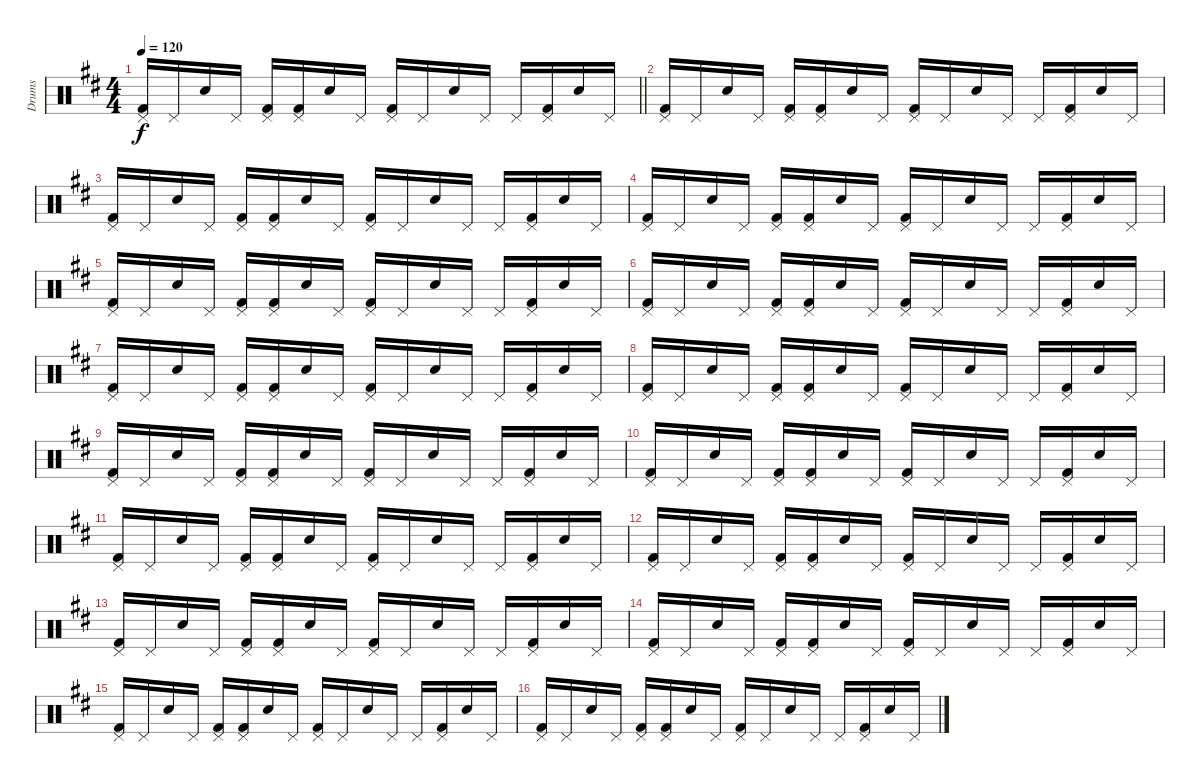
\track ("Drums" "Drums") {instrument percussion}
\staff {score}
\articulation defaults
\ts (4 4)
\tempo 120
\clef neutral
\barLineRight lightlight
\ks d
("Pedal Hi-Hat (hit)" "Kick (hit) 2").16{dy f} "Pedal Hi-Hat (hit)".16 "Electric Snare (hit)".16 "Pedal Hi-Hat (hit)".16 ("Pedal Hi-Hat (hit)" "Kick (hit) 2").16 ("Pedal Hi-Hat (hit)" "Kick (hit) 2").16 "Electric Snare (hit)".16 "Pedal Hi-Hat (hit)".16 ("Pedal Hi-Hat (hit)" "Kick (hit) 2").16 "Pedal Hi-Hat (hit)".16 "Electric Snare (hit)".16 "Pedal Hi-Hat (hit)".16 "Pedal Hi-Hat (hit)".16 ("Pedal Hi-Hat (hit)" "Kick (hit) 2").16 "Electric Snare (hit)".16 "Pedal Hi-Hat (hit)".16 |
("Pedal Hi-Hat (hit)" "Kick (hit) 2").16 "Pedal Hi-Hat (hit)".16 "Electric Snare (hit)".16 "Pedal Hi-Hat (hit)".16 ("Pedal Hi-Hat (hit)" "Kick (hit) 2").16 ("Pedal Hi-Hat (hit)" "Kick (hit) 2").16 "Electric Snare (hit)".16 "Pedal Hi-Hat (hit)".16 ("Pedal Hi-Hat (hit)" "Kick (hit) 2").16 "Pedal Hi-Hat (hit)".16 "Electric Snare (hit)".16 "Pedal Hi-Hat (hit)".16 "Pedal Hi-Hat (hit)".16 ("Pedal Hi-Hat (hit)" "Kick (hit) 2").16 "Electric Snare (hit)".16 "Pedal Hi-Hat (hit)".16 |
("Pedal Hi-Hat (hit)" "Kick (hit) 2").16 "Pedal Hi-Hat (hit)".16 "Electric Snare (hit)".16 "Pedal Hi-Hat (hit)".16 ("Pedal Hi-Hat (hit)" "Kick (hit) 2").16 ("Pedal Hi-Hat (hit)" "Kick (hit) 2").16 "Electric Snare (hit)".16 "Pedal Hi-Hat (hit)".16 ("Pedal Hi-Hat (hit)" "Kick (hit) 2").16 "Pedal Hi-Hat (hit)".16 "Electric Snare (hit)".16 "Pedal Hi-Hat (hit)".16 "Pedal Hi-Hat (hit)".16 ("Pedal Hi-Hat (hit)" "Kick (hit) 2").16 "Electric Snare (hit)".16 "Pedal Hi-Hat (hit)".16 |
("Pedal Hi-Hat (hit)" "Kick (hit) 2").16 "Pedal Hi-Hat (hit)".16 "Electric Snare (hit)".16 "Pedal Hi-Hat (hit)".16 ("Pedal Hi-Hat (hit)" "Kick (hit) 2").16 ("Pedal Hi-Hat (hit)" "Kick (hit) 2").16 "Electric Snare (hit)".16 "Pedal Hi-Hat (hit)".16 ("Pedal Hi-Hat (hit)" "Kick (hit) 2").16 "Pedal Hi-Hat (hit)".16 "Electric Snare (hit)".16 "Pedal Hi-Hat (hit)".16 "Pedal Hi-Hat (hit)".16 ("Pedal Hi-Hat (hit)" "Kick (hit) 2").16 "Electric Snare (hit)".16 "Pedal Hi-Hat (hit)".16 |
("Pedal Hi-Hat (hit)" "Kick (hit) 2").16 "Pedal Hi-Hat (hit)".16 "Electric Snare (hit)".16 "Pedal Hi-Hat (hit)".16 ("Pedal Hi-Hat (hit)" "Kick (hit) 2").16 ("Pedal Hi-Hat (hit)" "Kick (hit) 2").16 "Electric Snare (hit)".16 "Pedal Hi-Hat (hit)".16 ("Pedal Hi-Hat (hit)" "Kick (hit) 2").16 "Pedal Hi-Hat (hit)".16 "Electric Snare (hit)".16 "Pedal Hi-Hat (hit)".16 "Pedal Hi-Hat (hit)".16 ("Pedal Hi-Hat (hit)" "Kick (hit) 2").16 "Electric Snare (hit)".16 "Pedal Hi-Hat (hit)".16 |
("Pedal Hi-Hat (hit)" "Kick (hit) 2").16 "Pedal Hi-Hat (hit)".16 "Electric Snare (hit)".16 "Pedal Hi-Hat (hit)".16 ("Pedal Hi-Hat (hit)" "Kick (hit) 2").16 ("Pedal Hi-Hat (hit)" "Kick (hit) 2").16 "Electric Snare (hit)".16 "Pedal Hi-Hat (hit)".16 ("Pedal Hi-Hat (hit)" "Kick (hit) 2").16 "Pedal Hi-Hat (hit)".16 "Electric Snare (hit)".16 "Pedal Hi-Hat (hit)".16 "Pedal Hi-Hat (hit)".16 ("Pedal Hi-Hat (hit)" "Kick (hit) 2").16 "Electric Snare (hit)".16 "Pedal Hi-Hat (hit)".16 |
("Pedal Hi-Hat (hit)" "Kick (hit) 2").16 "Pedal Hi-Hat (hit)".16 "Electric Snare (hit)".16 "Pedal Hi-Hat (hit)".16 ("Pedal Hi-Hat (hit)" "Kick (hit) 2").16 ("Pedal Hi-Hat (hit)" "Kick (hit) 2").16 "Electric Snare (hit)".16 "Pedal Hi-Hat (hit)".16 ("Pedal Hi-Hat (hit)" "Kick (hit) 2").16 "Pedal Hi-Hat (hit)".16 "Electric Snare (hit)".16 "Pedal Hi-Hat (hit)".16 "Pedal Hi-Hat (hit)".16 ("Pedal Hi-Hat (hit)" "Kick (hit) 2").16 "Electric Snare (hit)".16 "Pedal Hi-Hat (hit)".16 |
("Pedal Hi-Hat (hit)" "Kick (hit) 2").16 "Pedal Hi-Hat (hit)".16 "Electric Snare (hit)".16 "Pedal Hi-Hat (hit)".16 ("Pedal Hi-Hat (hit)" "Kick (hit) 2").16 ("Pedal Hi-Hat (hit)" "Kick (hit) 2").16 "Electric Snare (hit)".16 "Pedal Hi-Hat (hit)".16 ("Pedal Hi-Hat (hit)" "Kick (hit) 2").16 "Pedal Hi-Hat (hit)".16 "Electric Snare (hit)".16 "Pedal Hi-Hat (hit)".16 "Pedal Hi-Hat (hit)".16 ("Pedal Hi-Hat (hit)" "Kick (hit) 2").16 "Electric Snare (hit)".16 "Pedal Hi-Hat (hit)".16 |
("Pedal Hi-Hat (hit)" "Kick (hit) 2").16 "Pedal Hi-Hat (hit)".16 "Electric Snare (hit)".16 "Pedal Hi-Hat (hit)".16 ("Pedal Hi-Hat (hit)" "Kick (hit) 2").16 ("Pedal Hi-Hat (hit)" "Kick (hit) 2").16 "Electric Snare (hit)".16 "Pedal Hi-Hat (hit)".16 ("Pedal Hi-Hat (hit)" "Kick (hit) 2").16 "Pedal Hi-Hat (hit)".16 "Electric Snare (hit)".16 "Pedal Hi-Hat (hit)".16 "Pedal Hi-Hat (hit)".16 ("Pedal Hi-Hat (hit)" "Kick (hit) 2").16 "Electric Snare (hit)".16 "Pedal Hi-Hat (hit)".16 |
("Pedal Hi-Hat (hit)" "Kick (hit) 2").16 "Pedal Hi-Hat (hit)".16 "Electric Snare (hit)".16 "Pedal Hi-Hat (hit)".16 ("Pedal Hi-Hat (hit)" "Kick (hit) 2").16 ("Pedal Hi-Hat (hit)" "Kick (hit) 2").16 "Electric Snare (hit)".16 "Pedal Hi-Hat (hit)".16 ("Pedal Hi-Hat (hit)" "Kick (hit) 2").16 "Pedal Hi-Hat (hit)".16 "Electric Snare (hit)".16 "Pedal Hi-Hat (hit)".16 "Pedal Hi-Hat (hit)".16 ("Pedal Hi-Hat (hit)" "Kick (hit) 2").16 "Electric Snare (hit)".16 "Pedal Hi-Hat (hit)".16 |
("Pedal Hi-Hat (hit)" "Kick (hit) 2").16 "Pedal Hi-Hat (hit)".16 "Electric Snare (hit)".16 "Pedal Hi-Hat (hit)".16 ("Pedal Hi-Hat (hit)" "Kick (hit) 2").16 ("Pedal Hi-Hat (hit)" "Kick (hit) 2").16 "Electric Snare (hit)".16 "Pedal Hi-Hat (hit)".16 ("Pedal Hi-Hat (hit)" "Kick (hit) 2").16 "Pedal Hi-Hat (hit)".16 "Electric Snare (hit)".16 "Pedal Hi-Hat (hit)".16 "Pedal Hi-Hat (hit)".16 ("Pedal Hi-Hat (hit)" "Kick (hit) 2").16 "Electric Snare (hit)".16 "Pedal Hi-Hat (hit)".16 |
("Pedal Hi-Hat (hit)" "Kick (hit) 2").16 "Pedal Hi-Hat (hit)".16 "Electric Snare (hit)".16 "Pedal Hi-Hat (hit)".16 ("Pedal Hi-Hat (hit)" "Kick (hit) 2").16 ("Pedal Hi-Hat (hit)" "Kick (hit) 2").16 "Electric Snare (hit)".16 "Pedal Hi-Hat (hit)".16 ("Pedal Hi-Hat (hit)" "Kick (hit) 2").16 "Pedal Hi-Hat (hit)".16 "Electric Snare (hit)".16 "Pedal Hi-Hat (hit)".16 "Pedal Hi-Hat (hit)".16 ("Pedal Hi-Hat (hit)" "Kick (hit) 2").16 "Electric Snare (hit)".16 "Pedal Hi-Hat (hit)".16 |
("Pedal Hi-Hat (hit)" "Kick (hit) 2").16 "Pedal Hi-Hat (hit)".16 "Electric Snare (hit)".16 "Pedal Hi-Hat (hit)".16 ("Pedal Hi-Hat (hit)" "Kick (hit) 2").16 ("Pedal Hi-Hat (hit)" "Kick (hit) 2").16 "Electric Snare (hit)".16 "Pedal Hi-Hat (hit)".16 ("Pedal Hi-Hat (hit)" "Kick (hit) 2").16 "Pedal Hi-Hat (hit)".16 "Electric Snare (hit)".16 "Pedal Hi-Hat (hit)".16 "Pedal Hi-Hat (hit)".16 ("Pedal Hi-Hat (hit)" "Kick (hit) 2").16 "Electric Snare (hit)".16 "Pedal Hi-Hat (hit)".16 |
("Pedal Hi-Hat (hit)" "Kick (hit) 2").16 "Pedal Hi-Hat (hit)".16 "Electric Snare (hit)".16 "Pedal Hi-Hat (hit)".16 ("Pedal Hi-Hat (hit)" "Kick (hit) 2").16 ("Pedal Hi-Hat (hit)" "Kick (hit) 2").16 "Electric Snare (hit)".16 "Pedal Hi-Hat (hit)".16 ("Pedal Hi-Hat (hit)" "Kick (hit) 2").16 "Pedal Hi-Hat (hit)".16 "Electric Snare (hit)".16 "Pedal Hi-Hat (hit)".16 "Pedal Hi-Hat (hit)".16 ("Pedal Hi-Hat (hit)" "Kick (hit) 2").16 "Electric Snare (hit)".16 "Pedal Hi-Hat (hit)".16 |
("Pedal Hi-Hat (hit)" "Kick (hit) 2").16 "Pedal Hi-Hat (hit)".16 "Electric Snare (hit)".16 "Pedal Hi-Hat (hit)".16 ("Pedal Hi-Hat (hit)" "Kick (hit) 2").16 ("Pedal Hi-Hat (hit)" "Kick (hit) 2").16 "Electric Snare (hit)".16 "Pedal Hi-Hat (hit)".16 ("Pedal Hi-Hat (hit)" "Kick (hit) 2").16 "Pedal Hi-Hat (hit)".16 "Electric Snare (hit)".16 "Pedal Hi-Hat (hit)".16 "Pedal Hi-Hat (hit)".16 ("Pedal Hi-Hat (hit)" "Kick (hit) 2").16 "Electric Snare (hit)".16 "Pedal Hi-Hat (hit)".16 |
("Pedal Hi-Hat (hit)" "Kick (hit) 2").16 "Pedal Hi-Hat (hit)".16 "Electric Snare (hit)".16 "Pedal Hi-Hat (hit)".16 ("Pedal Hi-Hat (hit)" "Kick (hit) 2").16 ("Pedal Hi-Hat (hit)" "Kick (hit) 2").16 "Electric Snare (hit)".16 "Pedal Hi-Hat (hit)".16 ("Pedal Hi-Hat (hit)" "Kick (hit) 2").16 "Pedal Hi-Hat (hit)".16 "Electric Snare (hit)".16 "Pedal Hi-Hat (hit)".16 "Pedal Hi-Hat (hit)".16 ("Pedal Hi-Hat (hit)" "Kick (hit) 2").16 "Electric Snare (hit)".16 "Pedal Hi-Hat (hit)".16
